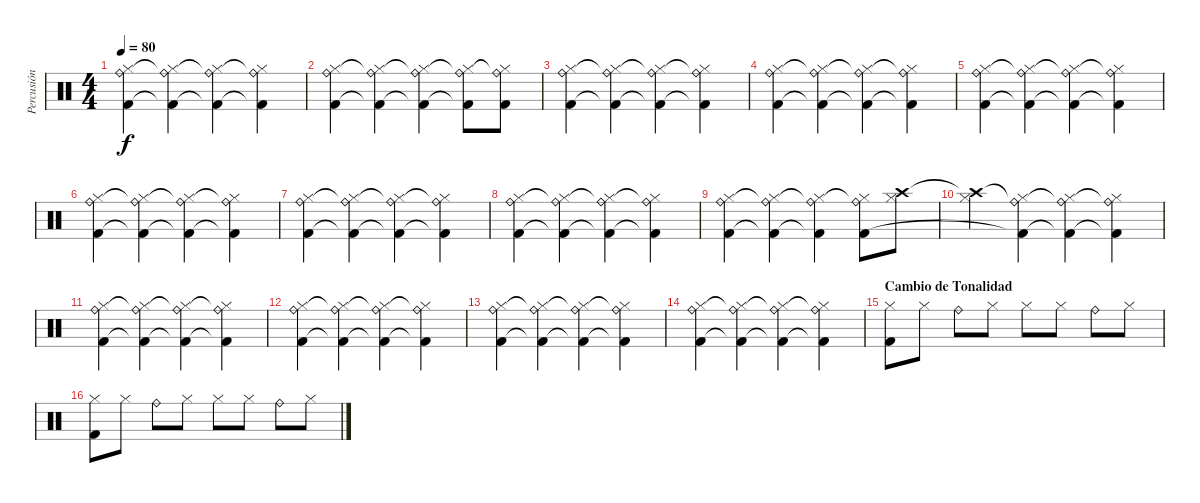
\track ("Percusión (J@vier MoLin@)" "Percusión ") {instrument percussion}
\staff {score}
\articulation defaults
\ts (4 4)
\tempo 80
\clef neutral
\ks c
("Hi-Hat (closed)" "Ride (bell)" "Kick (hit) 2").4{dy f} ("Hi-Hat (closed)" "Ride (bell)"{t} "Kick (hit) 2"{t}).4 ("Hi-Hat (closed)" "Ride (bell)"{t} "Kick (hit) 2"{t}).4 ("Hi-Hat (closed)" "Ride (bell)"{t} "Kick (hit) 2"{t}).4 |
("Hi-Hat (closed)" "Ride (bell)" "Kick (hit) 2").4 ("Hi-Hat (closed)" "Ride (bell)"{t} "Kick (hit) 2"{t}).4 ("Hi-Hat (closed)" "Ride (bell)"{t} "Kick (hit) 2"{t}).4 ("Hi-Hat (closed)" "Ride (bell)"{t} "Kick (hit) 2"{t}).8 ("Hi-Hat (closed)" "Ride (bell)"{t} "Kick (hit) 2").8 |
("Hi-Hat (closed)" "Ride (bell)" "Kick (hit) 2").4 ("Hi-Hat (closed)" "Ride (bell)"{t} "Kick (hit) 2"{t}).4 ("Hi-Hat (closed)" "Ride (bell)"{t} "Kick (hit) 2"{t}).4 ("Hi-Hat (closed)" "Ride (bell)"{t} "Kick (hit) 2"{t}).4 |
("Hi-Hat (closed)" "Ride (bell)" "Kick (hit) 2").4 ("Hi-Hat (closed)" "Ride (bell)"{t} "Kick (hit) 2"{t}).4 ("Hi-Hat (closed)" "Ride (bell)"{t} "Kick (hit) 2"{t}).4 ("Hi-Hat (closed)" "Ride (bell)"{t} "Kick (hit) 2"{t}).4 |
("Hi-Hat (closed)" "Ride (bell)" "Kick (hit) 2").4 ("Hi-Hat (closed)" "Ride (bell)"{t} "Kick (hit) 2"{t}).4 ("Hi-Hat (closed)" "Ride (bell)"{t} "Kick (hit) 2"{t}).4 ("Hi-Hat (closed)" "Ride (bell)"{t} "Kick (hit) 2"{t}).4 |
("Hi-Hat (closed)" "Ride (bell)" "Kick (hit) 2").4 ("Hi-Hat (closed)" "Ride (bell)"{t} "Kick (hit) 2"{t}).4 ("Hi-Hat (closed)" "Ride (bell)"{t} "Kick (hit) 2"{t}).4 ("Hi-Hat (closed)" "Ride (bell)"{t} "Kick (hit) 2"{t}).4 |
("Hi-Hat (closed)" "Ride (bell)" "Kick (hit) 2").4 ("Hi-Hat (closed)" "Ride (bell)"{t} "Kick (hit) 2"{t}).4 ("Hi-Hat (closed)" "Ride (bell)"{t} "Kick (hit) 2"{t}).4 ("Hi-Hat (closed)" "Ride (bell)"{t} "Kick (hit) 2"{t}).4 |
("Hi-Hat (closed)" "Ride (bell)" "Kick (hit) 2").4 ("Hi-Hat (closed)" "Ride (bell)"{t} "Kick (hit) 2"{t}).4 ("Hi-Hat (closed)" "Ride (bell)"{t} "Kick (hit) 2"{t}).4 ("Hi-Hat (closed)" "Ride (bell)"{t} "Kick (hit) 2"{t}).4 |
("Hi-Hat (closed)" "Ride (bell)" "Kick (hit) 2").4 ("Hi-Hat (closed)" "Ride (bell)"{t} "Kick (hit) 2"{t}).4 ("Hi-Hat (closed)" "Ride (bell)"{t} "Kick (hit) 2"{t}).4 ("Hi-Hat (closed)" "Ride (bell)"{t} "Kick (hit) 2").8 ("Hi-Hat (closed)" "Crash high (hit)").8 |
("Hi-Hat (closed)" "Crash high (hit)"{t}).4 ("Hi-Hat (closed)" "Ride (bell)"{t} "Kick (hit) 2"{t}).4 ("Hi-Hat (closed)" "Ride (bell)"{t} "Kick (hit) 2"{t}).4 ("Hi-Hat (closed)" "Ride (bell)"{t} "Kick (hit) 2"{t}).4 |
("Hi-Hat (closed)" "Ride (bell)" "Kick (hit) 2").4 ("Hi-Hat (closed)" "Ride (bell)"{t} "Kick (hit) 2"{t}).4 ("Hi-Hat (closed)" "Ride (bell)"{t} "Kick (hit) 2"{t}).4 ("Hi-Hat (closed)" "Ride (bell)"{t} "Kick (hit) 2"{t}).4 |
("Hi-Hat (closed)" "Ride (bell)" "Kick (hit) 2").4 ("Hi-Hat (closed)" "Ride (bell)"{t} "Kick (hit) 2"{t}).4 ("Hi-Hat (closed)" "Ride (bell)"{t} "Kick (hit) 2"{t}).4 ("Hi-Hat (closed)" "Ride (bell)"{t} "Kick (hit) 2"{t}).4 |
("Hi-Hat (closed)" "Ride (bell)" "Kick (hit) 2").4 ("Hi-Hat (closed)" "Ride (bell)"{t} "Kick (hit) 2"{t}).4 ("Hi-Hat (closed)" "Ride (bell)"{t} "Kick (hit) 2"{t}).4 ("Hi-Hat (closed)" "Ride (bell)"{t} "Kick (hit) 2"{t}).4 |
("Hi-Hat (closed)" "Ride (bell)" "Kick (hit) 2").4 ("Hi-Hat (closed)" "Ride (bell)"{t} "Kick (hit) 2"{t}).4 ("Hi-Hat (closed)" "Ride (bell)"{t} "Kick (hit) 2"{t}).4 ("Hi-Hat (closed)" "Ride (bell)"{t} "Kick (hit) 2"{t}).4 |
\section ("" "Cambio de Tonalidad")
("Hi-Hat (closed)" "Kick (hit) 2").8 "Hi-Hat (closed)".8 "Ride (bell)".8 "Hi-Hat (closed)".8 "Hi-Hat (closed)".8 "Hi-Hat (closed)".8 "Ride (bell)".8 "Hi-Hat (closed)".8 |
("Hi-Hat (closed)" "Kick (hit) 2").8 "Hi-Hat (closed)".8 "Ride (bell)".8 "Hi-Hat (closed)".8 "Hi-Hat (closed)".8 "Hi-Hat (closed)".8 "Ride (bell)".8 "Hi-Hat (closed)".8
